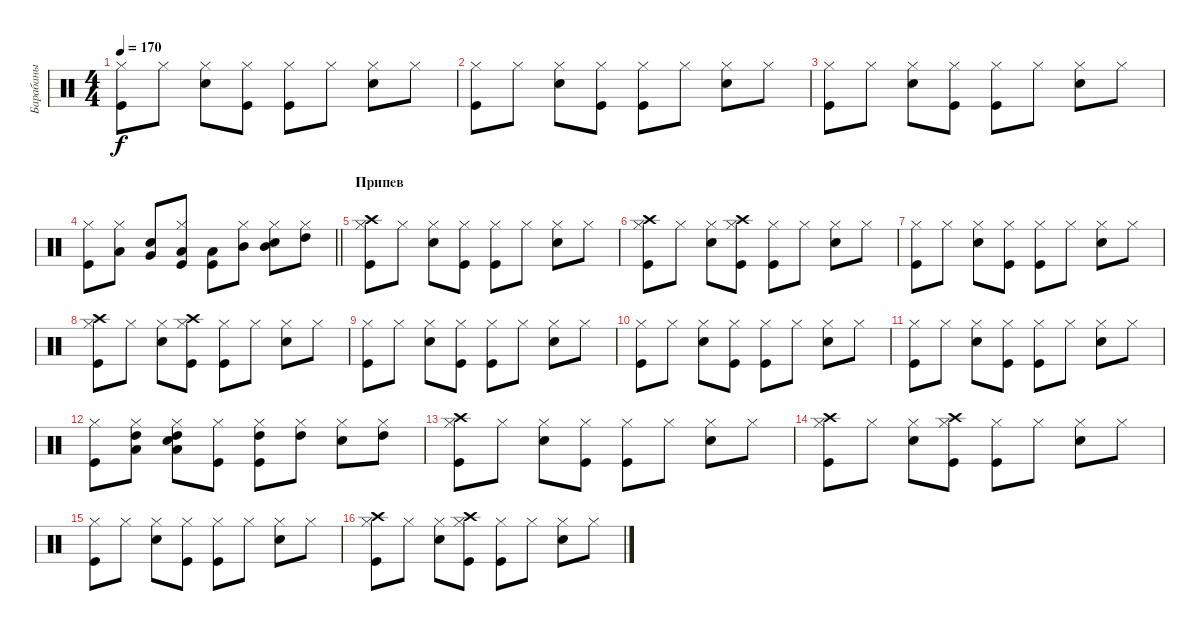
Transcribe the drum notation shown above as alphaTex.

\track ("Барабаны" "Барабаны") {instrument percussion}
\staff {score}
\articulation defaults
\ts (4 4)
\tempo 170
\clef neutral
\ks c
("Kick (hit)" "Hi-Hat (closed)").8{dy f} "Hi-Hat (closed)".8 ("Snare (hit) 2" "Hi-Hat (closed)").8 ("Kick (hit)" "Hi-Hat (closed)").8 ("Kick (hit)" "Hi-Hat (closed)").8 "Hi-Hat (closed)".8 ("Snare (hit) 2" "Hi-Hat (closed)").8 "Hi-Hat (closed)".8 |
("Kick (hit)" "Hi-Hat (closed)").8 "Hi-Hat (closed)".8 ("Snare (hit) 2" "Hi-Hat (closed)").8 ("Kick (hit)" "Hi-Hat (closed)").8 ("Kick (hit)" "Hi-Hat (closed)").8 "Hi-Hat (closed)".8 ("Snare (hit) 2" "Hi-Hat (closed)").8 "Hi-Hat (closed)".8 |
("Kick (hit)" "Hi-Hat (closed)").8 "Hi-Hat (closed)".8 ("Snare (hit) 2" "Hi-Hat (closed)").8 ("Kick (hit)" "Hi-Hat (closed)").8 ("Kick (hit)" "Hi-Hat (closed)").8 "Hi-Hat (closed)".8 ("Snare (hit) 2" "Hi-Hat (closed)").8 "Hi-Hat (closed)".8 |
\barLineRight lightlight
("Kick (hit)" "Hi-Hat (closed)").8 ("Hi-Hat (closed)" "Low Floor Tom (hit)").8 ("Snare (hit) 2" "Very Low Tom (hit)").8 ("Kick (hit)" "Hi-Hat (closed)" "Low Tom (hit)").8 ("Kick (hit)" "Low Tom (hit)").8 ("Hi-Hat (closed)" "Mid Tom (hit)").8 ("Snare (hit) 2" "Hi-Hat (closed)" "Mid Tom (hit)").8 ("Hi-Hat (closed)" "High Tom (hit)").8 |
\section ("" "Припев")
("Kick (hit)" "Hi-Hat (closed)" "Crash high (hit)").8 "Hi-Hat (closed)".8 ("Snare (hit) 2" "Hi-Hat (closed)").8 ("Kick (hit)" "Hi-Hat (closed)").8 ("Kick (hit)" "Hi-Hat (closed)").8 "Hi-Hat (closed)".8 ("Snare (hit) 2" "Hi-Hat (closed)").8 "Hi-Hat (closed)".8 |
("Kick (hit)" "Hi-Hat (closed)" "Crash high (hit)").8 "Hi-Hat (closed)".8 ("Snare (hit) 2" "Hi-Hat (closed)").8 ("Kick (hit)" "Hi-Hat (closed)" "Crash high (hit)").8 ("Kick (hit)" "Hi-Hat (closed)").8 "Hi-Hat (closed)".8 ("Snare (hit) 2" "Hi-Hat (closed)").8 "Hi-Hat (closed)".8 |
("Kick (hit)" "Hi-Hat (closed)").8 "Hi-Hat (closed)".8 ("Snare (hit) 2" "Hi-Hat (closed)").8 ("Kick (hit)" "Hi-Hat (closed)").8 ("Kick (hit)" "Hi-Hat (closed)").8 "Hi-Hat (closed)".8 ("Snare (hit) 2" "Hi-Hat (closed)").8 "Hi-Hat (closed)".8 |
("Kick (hit)" "Hi-Hat (closed)" "Crash high (hit)").8 "Hi-Hat (closed)".8 ("Snare (hit) 2" "Hi-Hat (closed)").8 ("Kick (hit)" "Hi-Hat (closed)" "Crash high (hit)").8 ("Kick (hit)" "Hi-Hat (closed)").8 "Hi-Hat (closed)".8 ("Snare (hit) 2" "Hi-Hat (closed)").8 "Hi-Hat (closed)".8 |
("Kick (hit)" "Hi-Hat (closed)").8 "Hi-Hat (closed)".8 ("Snare (hit) 2" "Hi-Hat (closed)").8 ("Kick (hit)" "Hi-Hat (closed)").8 ("Kick (hit)" "Hi-Hat (closed)").8 "Hi-Hat (closed)".8 ("Snare (hit) 2" "Hi-Hat (closed)").8 "Hi-Hat (closed)".8 |
("Kick (hit)" "Hi-Hat (closed)").8 "Hi-Hat (closed)".8 ("Snare (hit) 2" "Hi-Hat (closed)").8 ("Kick (hit)" "Hi-Hat (closed)").8 ("Kick (hit)" "Hi-Hat (closed)").8 "Hi-Hat (closed)".8 ("Snare (hit) 2" "Hi-Hat (closed)").8 "Hi-Hat (closed)".8 |
("Kick (hit)" "Hi-Hat (closed)").8 "Hi-Hat (closed)".8 ("Snare (hit) 2" "Hi-Hat (closed)").8 ("Kick (hit)" "Hi-Hat (closed)").8 ("Kick (hit)" "Hi-Hat (closed)").8 "Hi-Hat (closed)".8 ("Snare (hit) 2" "Hi-Hat (closed)").8 "Hi-Hat (closed)".8 |
("Kick (hit)" "Hi-Hat (closed)").8 ("Hi-Hat (closed)" "Low Floor Tom (hit)" "High Tom (hit)").8 ("Snare (hit) 2" "Hi-Hat (closed)" "Low Floor Tom (hit)" "High Tom (hit)").8 ("Kick (hit)" "Hi-Hat (closed)").8 ("Kick (hit)" "Hi-Hat (closed)" "High Tom (hit)").8 ("Hi-Hat (closed)" "High Tom (hit)").8 ("Snare (hit) 2" "Hi-Hat (closed)").8 ("Hi-Hat (closed)" "High Tom (hit)").8 |
("Kick (hit)" "Hi-Hat (closed)" "Crash high (hit)").8 "Hi-Hat (closed)".8 ("Snare (hit) 2" "Hi-Hat (closed)").8 ("Kick (hit)" "Hi-Hat (closed)").8 ("Kick (hit)" "Hi-Hat (closed)").8 "Hi-Hat (closed)".8 ("Snare (hit) 2" "Hi-Hat (closed)").8 "Hi-Hat (closed)".8 |
("Kick (hit)" "Hi-Hat (closed)" "Crash high (hit)").8 "Hi-Hat (closed)".8 ("Snare (hit) 2" "Hi-Hat (closed)").8 ("Kick (hit)" "Hi-Hat (closed)" "Crash high (hit)").8 ("Kick (hit)" "Hi-Hat (closed)").8 "Hi-Hat (closed)".8 ("Snare (hit) 2" "Hi-Hat (closed)").8 "Hi-Hat (closed)".8 |
("Kick (hit)" "Hi-Hat (closed)").8 "Hi-Hat (closed)".8 ("Snare (hit) 2" "Hi-Hat (closed)").8 ("Kick (hit)" "Hi-Hat (closed)").8 ("Kick (hit)" "Hi-Hat (closed)").8 "Hi-Hat (closed)".8 ("Snare (hit) 2" "Hi-Hat (closed)").8 "Hi-Hat (closed)".8 |
("Kick (hit)" "Hi-Hat (closed)" "Crash high (hit)").8 "Hi-Hat (closed)".8 ("Snare (hit) 2" "Hi-Hat (closed)").8 ("Kick (hit)" "Hi-Hat (closed)" "Crash high (hit)").8 ("Kick (hit)" "Hi-Hat (closed)").8 "Hi-Hat (closed)".8 ("Snare (hit) 2" "Hi-Hat (closed)").8 "Hi-Hat (closed)".8
